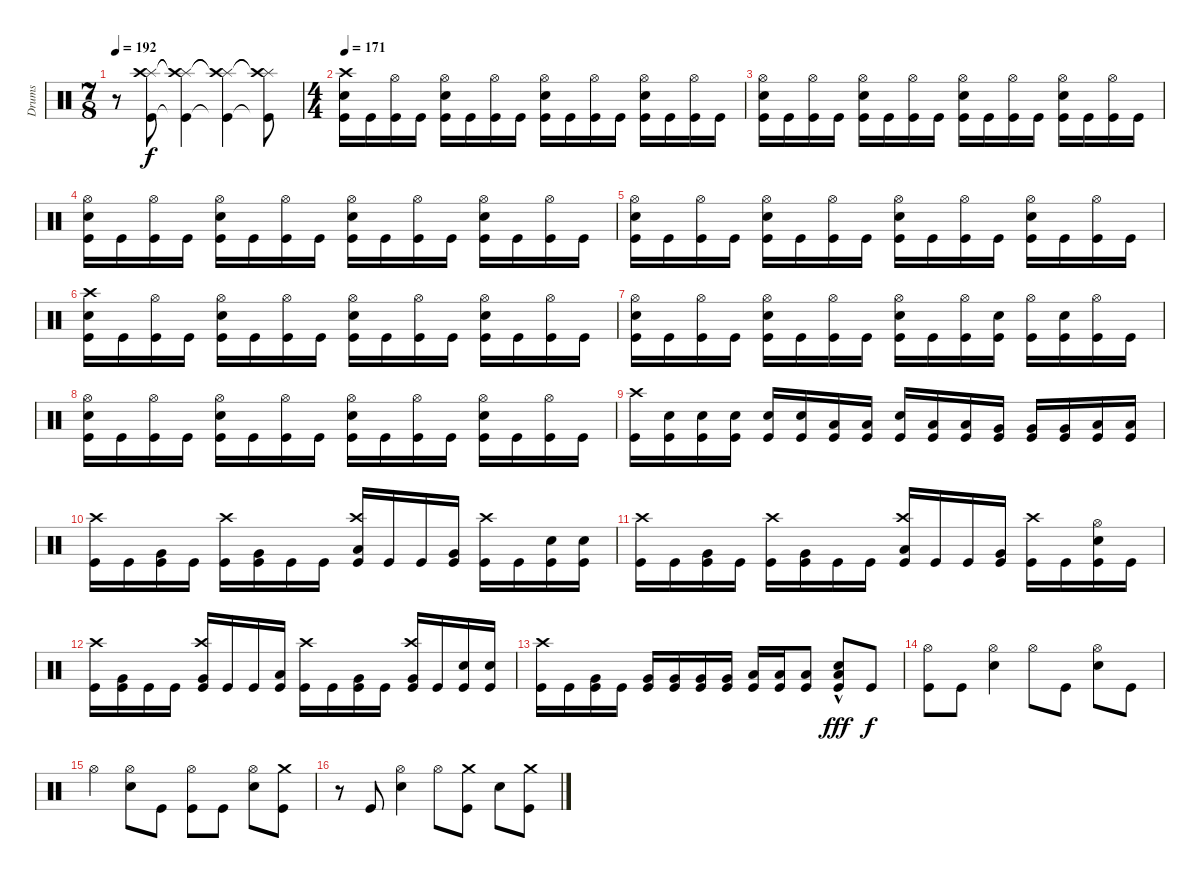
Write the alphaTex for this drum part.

\track ("Drums" "Drums") {instrument percussion}
\staff {score}
\articulation defaults
\ts (7 8)
\tempo 192
\clef neutral
\ks c
r.8{dy f} ("Splash (hit)" "Kick (hit)" "Crash high (hit)").8 ("Splash (hit)"{t} "Kick (hit)"{t} "Crash high (hit)"{t}).4 ("Splash (hit)"{t} "Kick (hit)"{t} "Crash high (hit)"{t}).4 ("Splash (hit)"{t} "Kick (hit)"{t} "Crash high (hit)"{t}).8 |
\ts (4 4)
\tempo 171
("Snare (hit) 2" "Kick (hit)" "Crash high (hit)").16 "Kick (hit)".16 ("Hi-Hat (open)" "Kick (hit)").16 "Kick (hit)".16 ("Snare (hit) 2" "Hi-Hat (open)" "Kick (hit)").16 "Kick (hit)".16 ("Hi-Hat (open)" "Kick (hit)").16 "Kick (hit)".16 ("Snare (hit) 2" "Hi-Hat (open)" "Kick (hit)").16 "Kick (hit)".16 ("Hi-Hat (open)" "Kick (hit)").16 "Kick (hit)".16 ("Snare (hit) 2" "Hi-Hat (open)" "Kick (hit)").16 "Kick (hit)".16 ("Hi-Hat (open)" "Kick (hit)").16 "Kick (hit)".16 |
("Snare (hit) 2" "Hi-Hat (open)" "Kick (hit)").16 "Kick (hit)".16 ("Hi-Hat (open)" "Kick (hit)").16 "Kick (hit)".16 ("Snare (hit) 2" "Hi-Hat (open)" "Kick (hit)").16 "Kick (hit)".16 ("Hi-Hat (open)" "Kick (hit)").16 "Kick (hit)".16 ("Snare (hit) 2" "Hi-Hat (open)" "Kick (hit)").16 "Kick (hit)".16 ("Hi-Hat (open)" "Kick (hit)").16 "Kick (hit)".16 ("Snare (hit) 2" "Hi-Hat (open)" "Kick (hit)").16 "Kick (hit)".16 ("Hi-Hat (open)" "Kick (hit)").16 "Kick (hit)".16 |
("Snare (hit) 2" "Hi-Hat (open)" "Kick (hit)").16 "Kick (hit)".16 ("Hi-Hat (open)" "Kick (hit)").16 "Kick (hit)".16 ("Snare (hit) 2" "Hi-Hat (open)" "Kick (hit)").16 "Kick (hit)".16 ("Hi-Hat (open)" "Kick (hit)").16 "Kick (hit)".16 ("Snare (hit) 2" "Hi-Hat (open)" "Kick (hit)").16 "Kick (hit)".16 ("Hi-Hat (open)" "Kick (hit)").16 "Kick (hit)".16 ("Snare (hit) 2" "Hi-Hat (open)" "Kick (hit)").16 "Kick (hit)".16 ("Hi-Hat (open)" "Kick (hit)").16 "Kick (hit)".16 |
("Snare (hit) 2" "Hi-Hat (open)" "Kick (hit)").16 "Kick (hit)".16 ("Hi-Hat (open)" "Kick (hit)").16 "Kick (hit)".16 ("Snare (hit) 2" "Hi-Hat (open)" "Kick (hit)").16 "Kick (hit)".16 ("Hi-Hat (open)" "Kick (hit)").16 "Kick (hit)".16 ("Snare (hit) 2" "Hi-Hat (open)" "Kick (hit)").16 "Kick (hit)".16 ("Hi-Hat (open)" "Kick (hit)").16 "Kick (hit)".16 ("Snare (hit) 2" "Hi-Hat (open)" "Kick (hit)").16 "Kick (hit)".16 ("Hi-Hat (open)" "Kick (hit)").16 "Kick (hit)".16 |
("Snare (hit) 2" "Kick (hit)" "Crash high (hit)").16 "Kick (hit)".16 ("Hi-Hat (open)" "Kick (hit)").16 "Kick (hit)".16 ("Snare (hit) 2" "Hi-Hat (open)" "Kick (hit)").16 "Kick (hit)".16 ("Hi-Hat (open)" "Kick (hit)").16 "Kick (hit)".16 ("Snare (hit) 2" "Hi-Hat (open)" "Kick (hit)").16 "Kick (hit)".16 ("Hi-Hat (open)" "Kick (hit)").16 "Kick (hit)".16 ("Snare (hit) 2" "Hi-Hat (open)" "Kick (hit)").16 "Kick (hit)".16 ("Hi-Hat (open)" "Kick (hit)").16 "Kick (hit)".16 |
("Snare (hit) 2" "Hi-Hat (open)" "Kick (hit)").16 "Kick (hit)".16 ("Hi-Hat (open)" "Kick (hit)").16 "Kick (hit)".16 ("Snare (hit) 2" "Hi-Hat (open)" "Kick (hit)").16 "Kick (hit)".16 ("Hi-Hat (open)" "Kick (hit)").16 "Kick (hit)".16 ("Snare (hit) 2" "Hi-Hat (open)" "Kick (hit)").16 "Kick (hit)".16 ("Hi-Hat (open)" "Kick (hit)").16 ("Snare (hit) 2" "Kick (hit)").16 ("Hi-Hat (open)" "Kick (hit)").16 ("Snare (hit) 2" "Kick (hit)").16 ("Hi-Hat (open)" "Kick (hit)").16 "Kick (hit)".16 |
("Snare (hit) 2" "Hi-Hat (open)" "Kick (hit)").16 "Kick (hit)".16 ("Hi-Hat (open)" "Kick (hit)").16 "Kick (hit)".16 ("Snare (hit) 2" "Hi-Hat (open)" "Kick (hit)").16 "Kick (hit)".16 ("Hi-Hat (open)" "Kick (hit)").16 "Kick (hit)".16 ("Snare (hit) 2" "Hi-Hat (open)" "Kick (hit)").16 "Kick (hit)".16 ("Hi-Hat (open)" "Kick (hit)").16 "Kick (hit)".16 ("Snare (hit) 2" "Hi-Hat (open)" "Kick (hit)").16 "Kick (hit)".16 ("Hi-Hat (open)" "Kick (hit)").16 "Kick (hit)".16 |
("Kick (hit)" "Crash high (hit)").16 ("Snare (hit) 2" "Kick (hit)").16 ("Snare (hit) 2" "Kick (hit)").16 ("Snare (hit) 2" "Kick (hit)").16 ("Snare (hit) 2" "Kick (hit)").16 ("Snare (hit) 2" "Kick (hit)").16 ("Low Tom (hit)" "Kick (hit)").16 ("Low Tom (hit)" "Kick (hit)").16 ("Snare (hit) 2" "Kick (hit)").16 ("Low Tom (hit)" "Kick (hit)").16 ("Low Tom (hit)" "Kick (hit)").16 ("Very Low Tom (hit)" "Kick (hit)").16 ("Very Low Tom (hit)" "Kick (hit)").16 ("Very Low Tom (hit)" "Kick (hit)").16 ("Kick (hit)" "Low Floor Tom (hit)").16 ("Kick (hit)" "Low Floor Tom (hit)").16 |
("Kick (hit)" "Crash high (hit)").16 "Kick (hit)".16 ("Very Low Tom (hit)" "Kick (hit)").16 "Kick (hit)".16 ("Kick (hit)" "Crash high (hit)").16 ("Very Low Tom (hit)" "Kick (hit)").16 "Kick (hit)".16 "Kick (hit)".16 ("Kick (hit)" "Crash high (hit)" "Low Floor Tom (hit)").16 "Kick (hit)".16 "Kick (hit)".16 ("Very Low Tom (hit)" "Kick (hit)").16 ("Kick (hit)" "Crash high (hit)").16 "Kick (hit)".16 ("Snare (hit) 2" "Kick (hit)").16 ("Snare (hit) 2" "Kick (hit)").16 |
("Kick (hit)" "Crash high (hit)").16 "Kick (hit)".16 ("Very Low Tom (hit)" "Kick (hit)").16 "Kick (hit)".16 ("Kick (hit)" "Crash high (hit)").16 ("Very Low Tom (hit)" "Kick (hit)").16 "Kick (hit)".16 "Kick (hit)".16 ("Kick (hit)" "Crash high (hit)" "Low Floor Tom (hit)").16 "Kick (hit)".16 "Kick (hit)".16 ("Very Low Tom (hit)" "Kick (hit)").16 ("Kick (hit)" "Crash high (hit)").16 "Kick (hit)".16 ("Snare (hit) 2" "Hi-Hat (open)" "Kick (hit)").16 "Kick (hit)".16 |
("Kick (hit)" "Crash high (hit)").16 ("Very Low Tom (hit)" "Kick (hit)").16 "Kick (hit)".16 "Kick (hit)".16 ("Very Low Tom (hit)" "Kick (hit)" "Crash high (hit)").16 "Kick (hit)".16 "Kick (hit)".16 ("Kick (hit)" "Low Floor Tom (hit)").16 ("Kick (hit)" "Crash high (hit)").16 "Kick (hit)".16 ("Very Low Tom (hit)" "Kick (hit)").16 "Kick (hit)".16 ("Very Low Tom (hit)" "Kick (hit)" "Crash high (hit)").16 "Kick (hit)".16 ("Snare (hit) 2" "Kick (hit)").16 ("Snare (hit) 2" "Kick (hit)").16 |
("Kick (hit)" "Crash high (hit)").16 "Kick (hit)".16 ("Very Low Tom (hit)" "Kick (hit)").16 "Kick (hit)".16 ("Very Low Tom (hit)" "Kick (hit)").16 ("Very Low Tom (hit)" "Kick (hit)").16 ("Very Low Tom (hit)" "Kick (hit)").16 ("Very Low Tom (hit)" "Kick (hit)").16 ("Kick (hit)" "Low Floor Tom (hit)").16 ("Kick (hit)" "Low Floor Tom (hit)").16 ("Kick (hit)" "Low Floor Tom (hit)").8 ("Snare (hit) 2"{hac} "Kick (hit)" "Low Floor Tom (hit)").8{dy fff} "Kick (hit)".8{dy f} |
("Hi-Hat (open)" "Kick (hit)").8 "Kick (hit)".8 ("Snare (hit) 2" "Hi-Hat (open)").4 "Hi-Hat (open)".8 "Kick (hit)".8 ("Snare (hit) 2" "Hi-Hat (open)").8 "Kick (hit)".8 |
"Hi-Hat (open)".4 ("Snare (hit) 2" "Hi-Hat (open)").8 "Kick (hit)".8 ("Hi-Hat (open)" "Kick (hit)").8 "Kick (hit)".8 ("Snare (hit) 2" "Hi-Hat (open)").8 ("Kick (hit)" "Crash medium (hit)").8 |
r.8 "Kick (hit)".8 ("Snare (hit) 2" "Hi-Hat (open)").4 "Hi-Hat (open)".8 ("Kick (hit)" "Crash medium (hit)").8 "Snare (hit) 2".8 ("Kick (hit)" "Crash medium (hit)").8
